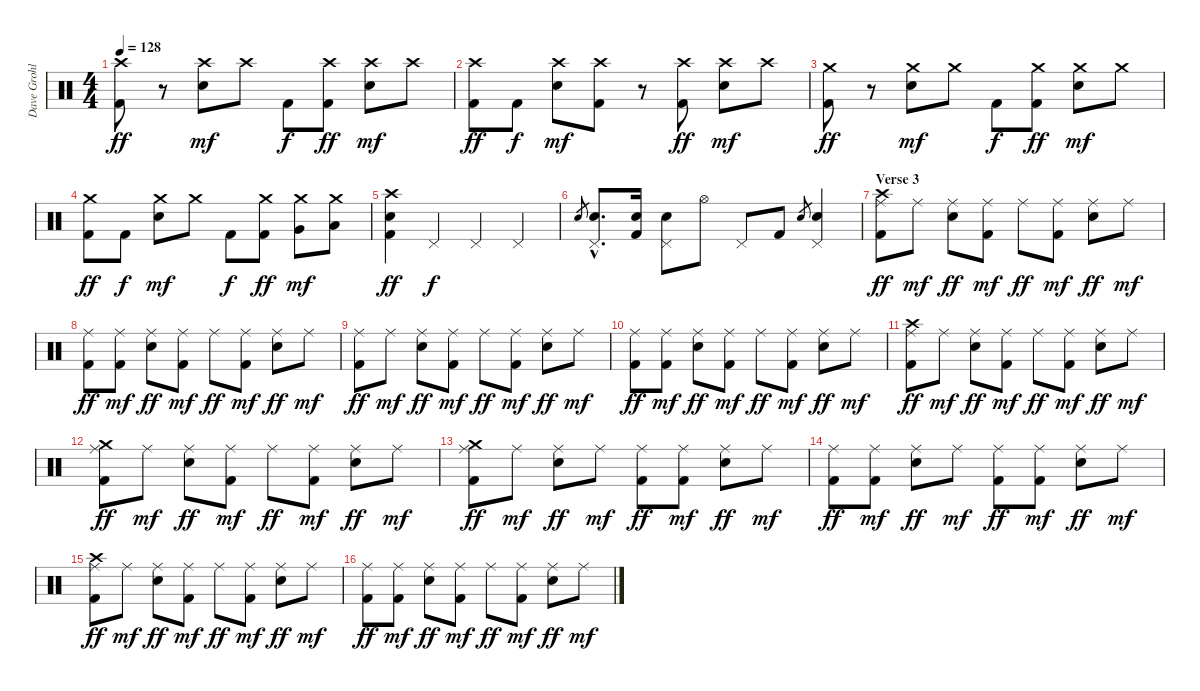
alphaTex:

\track ("Dave Grohl" "Dave Grohl") {instrument percussion}
\staff {score}
\articulation defaults
\ts (4 4)
\tempo 128
\clef neutral
\ks c
("Crash high (hit)" "Kick (hit) 2").8{dy ff} r.8 ("Crash high (hit)" "Snare (hit) 2").8{dy mf} "Crash high (hit)".8 "Kick (hit) 2".8{dy f} ("Crash high (hit)" "Kick (hit) 2").8{dy ff} ("Crash high (hit)" "Snare (hit) 2").8{dy mf} "Crash high (hit)".8 |
("Crash high (hit)" "Kick (hit) 2").8{dy ff} "Kick (hit) 2".8{dy f} ("Crash high (hit)" "Snare (hit) 2").8{dy mf} ("Crash high (hit)" "Kick (hit) 2").8 r.8 ("Crash high (hit)" "Kick (hit) 2").8{dy ff} ("Crash high (hit)" "Snare (hit) 2").8{dy mf} "Crash high (hit)".8 |
("Crash medium (hit)" "Kick (hit) 2").8{dy ff} r.8 ("Crash medium (hit)" "Snare (hit) 2").8{dy mf} "Crash medium (hit)".8 "Kick (hit) 2".8{dy f} ("Crash medium (hit)" "Kick (hit) 2").8{dy ff} ("Crash medium (hit)" "Snare (hit) 2").8{dy mf} "Crash medium (hit)".8 |
("Crash medium (hit)" "Kick (hit) 2").8{dy ff} "Kick (hit) 2".8{dy f} ("Crash medium (hit)" "Snare (hit) 2").8{dy mf} "Crash medium (hit)".8 "Kick (hit) 2".8{dy f} ("Crash medium (hit)" "Kick (hit) 2").8{dy ff} ("Crash medium (hit)" "Very Low Tom (hit)").8{dy mf} ("Crash medium (hit)" "Low Floor Tom (hit)").8 |
("Crash high (hit)" "Snare (hit) 2" "Kick (hit) 2").4{dy ff} "Pedal Hi-Hat (hit)".4{dy f} "Pedal Hi-Hat (hit)".4 "Pedal Hi-Hat (hit)".4 |
"Snare (hit) 2".8{gr} ("Pedal Hi-Hat (hit)"{hac} "Snare (hit) 2"{hac}).8{d} ("Snare (hit) 2" "Kick (hit) 2").16 ("Pedal Hi-Hat (hit)" "Snare (hit) 2").8 "Hi-Hat (open)".8 "Pedal Hi-Hat (hit)".8 "Kick (hit) 2".8 "Snare (hit) 2".8{gr} ("Pedal Hi-Hat (hit)" "Snare (hit) 2").4 |
\section ("" "Verse 3")
("Crash high (hit)" "Ride (middle)" "Kick (hit) 2").8{dy ff} "Ride (middle)".8{dy mf} ("Ride (middle)" "Snare (hit) 2").8{dy ff} ("Ride (middle)" "Kick (hit) 2").8{dy mf} "Ride (middle)".8{dy ff} ("Ride (middle)" "Kick (hit) 2").8{dy mf} ("Ride (middle)" "Snare (hit) 2").8{dy ff} "Ride (middle)".8{dy mf} |
("Ride (middle)" "Kick (hit) 2").8{dy ff} ("Ride (middle)" "Kick (hit) 2").8{dy mf} ("Ride (middle)" "Snare (hit) 2").8{dy ff} ("Ride (middle)" "Kick (hit) 2").8{dy mf} "Ride (middle)".8{dy ff} ("Ride (middle)" "Kick (hit) 2").8{dy mf} ("Ride (middle)" "Snare (hit) 2").8{dy ff} "Ride (middle)".8{dy mf} |
("Ride (middle)" "Kick (hit) 2").8{dy ff} "Ride (middle)".8{dy mf} ("Ride (middle)" "Snare (hit) 2").8{dy ff} ("Ride (middle)" "Kick (hit) 2").8{dy mf} "Ride (middle)".8{dy ff} ("Ride (middle)" "Kick (hit) 2").8{dy mf} ("Ride (middle)" "Snare (hit) 2").8{dy ff} "Ride (middle)".8{dy mf} |
("Ride (middle)" "Kick (hit) 2").8{dy ff} ("Ride (middle)" "Kick (hit) 2").8{dy mf} ("Ride (middle)" "Snare (hit) 2").8{dy ff} ("Ride (middle)" "Kick (hit) 2").8{dy mf} "Ride (middle)".8{dy ff} ("Ride (middle)" "Kick (hit) 2").8{dy mf} ("Ride (middle)" "Snare (hit) 2").8{dy ff} "Ride (middle)".8{dy mf} |
("Crash high (hit)" "Ride (middle)" "Kick (hit) 2").8{dy ff} "Ride (middle)".8{dy mf} ("Ride (middle)" "Snare (hit) 2").8{dy ff} ("Ride (middle)" "Kick (hit) 2").8{dy mf} "Ride (middle)".8{dy ff} ("Ride (middle)" "Kick (hit) 2").8{dy mf} ("Ride (middle)" "Snare (hit) 2").8{dy ff} "Ride (middle)".8{dy mf} |
("Crash medium (hit)" "Ride (middle)" "Kick (hit) 2").8{dy ff} "Ride (middle)".8{dy mf} ("Ride (middle)" "Snare (hit) 2").8{dy ff} ("Ride (middle)" "Kick (hit) 2").8{dy mf} "Ride (middle)".8{dy ff} ("Ride (middle)" "Kick (hit) 2").8{dy mf} ("Ride (middle)" "Snare (hit) 2").8{dy ff} "Ride (middle)".8{dy mf} |
("Crash medium (hit)" "Ride (middle)" "Kick (hit) 2").8{dy ff} "Ride (middle)".8{dy mf} ("Ride (middle)" "Snare (hit) 2").8{dy ff} "Ride (middle)".8{dy mf} ("Ride (middle)" "Kick (hit) 2").8{dy ff} ("Ride (middle)" "Kick (hit) 2").8{dy mf} ("Ride (middle)" "Snare (hit) 2").8{dy ff} "Ride (middle)".8{dy mf} |
("Ride (middle)" "Kick (hit) 2").8{dy ff} ("Ride (middle)" "Kick (hit) 2").8{dy mf} ("Ride (middle)" "Snare (hit) 2").8{dy ff} "Ride (middle)".8{dy mf} ("Ride (middle)" "Kick (hit) 2").8{dy ff} ("Ride (middle)" "Kick (hit) 2").8{dy mf} ("Ride (middle)" "Snare (hit) 2").8{dy ff} "Ride (middle)".8{dy mf} |
("Crash high (hit)" "Ride (middle)" "Kick (hit) 2").8{dy ff} "Ride (middle)".8{dy mf} ("Ride (middle)" "Snare (hit) 2").8{dy ff} ("Ride (middle)" "Kick (hit) 2").8{dy mf} "Ride (middle)".8{dy ff} ("Ride (middle)" "Kick (hit) 2").8{dy mf} ("Ride (middle)" "Snare (hit) 2").8{dy ff} "Ride (middle)".8{dy mf} |
("Ride (middle)" "Kick (hit) 2").8{dy ff} ("Ride (middle)" "Kick (hit) 2").8{dy mf} ("Ride (middle)" "Snare (hit) 2").8{dy ff} ("Ride (middle)" "Kick (hit) 2").8{dy mf} "Ride (middle)".8{dy ff} ("Ride (middle)" "Kick (hit) 2").8{dy mf} ("Ride (middle)" "Snare (hit) 2").8{dy ff} "Ride (middle)".8{dy mf}
